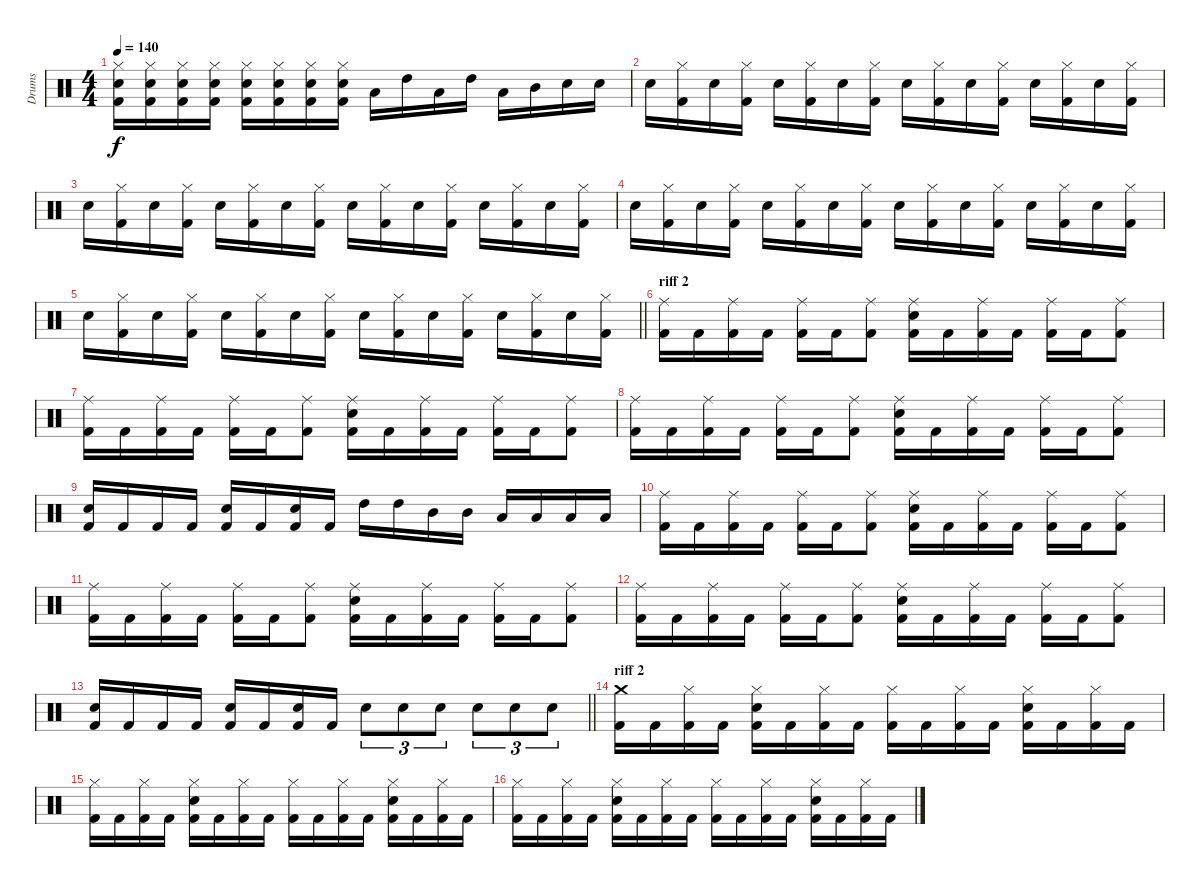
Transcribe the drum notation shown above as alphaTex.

\track ("Drums" "Drums") {instrument percussion}
\staff {score}
\articulation defaults
\ts (4 4)
\tempo 140
\clef neutral
\ks c
("Kick (hit) 2" "Snare (hit) 2" "Hi-Hat (closed)").16{dy f} ("Kick (hit) 2" "Snare (hit) 2" "Hi-Hat (closed)").16 ("Kick (hit) 2" "Snare (hit) 2" "Hi-Hat (closed)").16 ("Kick (hit) 2" "Snare (hit) 2" "Hi-Hat (closed)").16 ("Kick (hit) 2" "Snare (hit) 2" "Hi-Hat (closed)").16 ("Kick (hit) 2" "Snare (hit) 2" "Hi-Hat (closed)").16 ("Kick (hit) 2" "Snare (hit) 2" "Hi-Hat (closed)").16 ("Kick (hit) 2" "Snare (hit) 2" "Hi-Hat (closed)").16 "Low Floor Tom (hit)".16 "High Tom (hit)".16 "Low Floor Tom (hit)".16 "High Tom (hit)".16 "Low Floor Tom (hit)".16 "Mid Tom (hit)".16 "Snare (hit) 2".16 "Snare (hit) 2".16 |
"Snare (hit) 2".16 ("Kick (hit) 2" "Hi-Hat (closed)").16 "Snare (hit) 2".16 ("Kick (hit) 2" "Hi-Hat (closed)").16 "Snare (hit) 2".16 ("Kick (hit) 2" "Hi-Hat (closed)").16 "Snare (hit) 2".16 ("Kick (hit) 2" "Hi-Hat (closed)").16 "Snare (hit) 2".16 ("Kick (hit) 2" "Hi-Hat (closed)").16 "Snare (hit) 2".16 ("Kick (hit) 2" "Hi-Hat (closed)").16 "Snare (hit) 2".16 ("Kick (hit) 2" "Hi-Hat (closed)").16 "Snare (hit) 2".16 ("Kick (hit) 2" "Hi-Hat (closed)").16 |
"Snare (hit) 2".16 ("Kick (hit) 2" "Hi-Hat (closed)").16 "Snare (hit) 2".16 ("Kick (hit) 2" "Hi-Hat (closed)").16 "Snare (hit) 2".16 ("Kick (hit) 2" "Hi-Hat (closed)").16 "Snare (hit) 2".16 ("Kick (hit) 2" "Hi-Hat (closed)").16 "Snare (hit) 2".16 ("Kick (hit) 2" "Hi-Hat (closed)").16 "Snare (hit) 2".16 ("Kick (hit) 2" "Hi-Hat (closed)").16 "Snare (hit) 2".16 ("Kick (hit) 2" "Hi-Hat (closed)").16 "Snare (hit) 2".16 ("Kick (hit) 2" "Hi-Hat (closed)").16 |
"Snare (hit) 2".16 ("Kick (hit) 2" "Hi-Hat (closed)").16 "Snare (hit) 2".16 ("Kick (hit) 2" "Hi-Hat (closed)").16 "Snare (hit) 2".16 ("Kick (hit) 2" "Hi-Hat (closed)").16 "Snare (hit) 2".16 ("Kick (hit) 2" "Hi-Hat (closed)").16 "Snare (hit) 2".16 ("Kick (hit) 2" "Hi-Hat (closed)").16 "Snare (hit) 2".16 ("Kick (hit) 2" "Hi-Hat (closed)").16 "Snare (hit) 2".16 ("Kick (hit) 2" "Hi-Hat (closed)").16 "Snare (hit) 2".16 ("Kick (hit) 2" "Hi-Hat (closed)").16 |
\barLineRight lightlight "Snare (hit) 2".16
("Kick (hit) 2" "Hi-Hat (closed)").16 "Snare (hit) 2".16 ("Kick (hit) 2" "Hi-Hat (closed)").16 "Snare (hit) 2".16 ("Kick (hit) 2" "Hi-Hat (closed)").16 "Snare (hit) 2".16 ("Kick (hit) 2" "Hi-Hat (closed)").16 "Snare (hit) 2".16 ("Kick (hit) 2" "Hi-Hat (closed)").16 "Snare (hit) 2".16 ("Kick (hit) 2" "Hi-Hat (closed)").16 "Snare (hit) 2".16 ("Kick (hit) 2" "Hi-Hat (closed)").16 "Snare (hit) 2".16 ("Kick (hit) 2" "Hi-Hat (closed)").16 |
\section ("" "riff 2")
("Kick (hit) 2" "Ride (middle)").16 "Kick (hit) 2".16 ("Kick (hit) 2" "Ride (middle)").16 "Kick (hit) 2".16 ("Kick (hit) 2" "Ride (middle)").16 "Kick (hit) 2".16 ("Kick (hit) 2" "Ride (middle)").8 ("Kick (hit) 2" "Snare (hit) 2" "Ride (middle)").16 "Kick (hit) 2".16 ("Kick (hit) 2" "Ride (middle)").16 "Kick (hit) 2".16 ("Kick (hit) 2" "Ride (middle)").16 "Kick (hit) 2".16 ("Kick (hit) 2" "Ride (middle)").8 |
("Kick (hit) 2" "Ride (middle)").16 "Kick (hit) 2".16 ("Kick (hit) 2" "Ride (middle)").16 "Kick (hit) 2".16 ("Kick (hit) 2" "Ride (middle)").16 "Kick (hit) 2".16 ("Kick (hit) 2" "Ride (middle)").8 ("Kick (hit) 2" "Snare (hit) 2" "Ride (middle)").16 "Kick (hit) 2".16 ("Kick (hit) 2" "Ride (middle)").16 "Kick (hit) 2".16 ("Kick (hit) 2" "Ride (middle)").16 "Kick (hit) 2".16 ("Kick (hit) 2" "Ride (middle)").8 |
("Kick (hit) 2" "Ride (middle)").16 "Kick (hit) 2".16 ("Kick (hit) 2" "Ride (middle)").16 "Kick (hit) 2".16 ("Kick (hit) 2" "Ride (middle)").16 "Kick (hit) 2".16 ("Kick (hit) 2" "Ride (middle)").8 ("Kick (hit) 2" "Snare (hit) 2" "Ride (middle)").16 "Kick (hit) 2".16 ("Kick (hit) 2" "Ride (middle)").16 "Kick (hit) 2".16 ("Kick (hit) 2" "Ride (middle)").16 "Kick (hit) 2".16 ("Kick (hit) 2" "Ride (middle)").8 |
("Kick (hit) 2" "Snare (hit) 2").16 "Kick (hit) 2".16 "Kick (hit) 2".16 "Kick (hit) 2".16 ("Kick (hit) 2" "Snare (hit) 2").16 "Kick (hit) 2".16 ("Kick (hit) 2" "Snare (hit) 2").16 "Kick (hit) 2".16 "High Tom (hit)".16 "High Tom (hit)".16 "Mid Tom (hit)".16 "Mid Tom (hit)".16 "Low Tom (hit)".16 "Low Tom (hit)".16 "Low Floor Tom (hit)".16 "Low Floor Tom (hit)".16 |
("Kick (hit) 2" "Ride (middle)").16 "Kick (hit) 2".16 ("Kick (hit) 2" "Ride (middle)").16 "Kick (hit) 2".16 ("Kick (hit) 2" "Ride (middle)").16 "Kick (hit) 2".16 ("Kick (hit) 2" "Ride (middle)").8 ("Kick (hit) 2" "Snare (hit) 2" "Ride (middle)").16 "Kick (hit) 2".16 ("Kick (hit) 2" "Ride (middle)").16 "Kick (hit) 2".16 ("Kick (hit) 2" "Ride (middle)").16 "Kick (hit) 2".16 ("Kick (hit) 2" "Ride (middle)").8 |
("Kick (hit) 2" "Ride (middle)").16 "Kick (hit) 2".16 ("Kick (hit) 2" "Ride (middle)").16 "Kick (hit) 2".16 ("Kick (hit) 2" "Ride (middle)").16 "Kick (hit) 2".16 ("Kick (hit) 2" "Ride (middle)").8 ("Kick (hit) 2" "Snare (hit) 2" "Ride (middle)").16 "Kick (hit) 2".16 ("Kick (hit) 2" "Ride (middle)").16 "Kick (hit) 2".16 ("Kick (hit) 2" "Ride (middle)").16 "Kick (hit) 2".16 ("Kick (hit) 2" "Ride (middle)").8 |
("Kick (hit) 2" "Ride (middle)").16 "Kick (hit) 2".16 ("Kick (hit) 2" "Ride (middle)").16 "Kick (hit) 2".16 ("Kick (hit) 2" "Ride (middle)").16 "Kick (hit) 2".16 ("Kick (hit) 2" "Ride (middle)").8 ("Kick (hit) 2" "Snare (hit) 2" "Ride (middle)").16 "Kick (hit) 2".16 ("Kick (hit) 2" "Ride (middle)").16 "Kick (hit) 2".16 ("Kick (hit) 2" "Ride (middle)").16 "Kick (hit) 2".16 ("Kick (hit) 2" "Ride (middle)").8 |
\barLineRight lightlight
("Kick (hit) 2" "Snare (hit) 2").16 "Kick (hit) 2".16 "Kick (hit) 2".16 "Kick (hit) 2".16 ("Kick (hit) 2" "Snare (hit) 2").16 "Kick (hit) 2".16 ("Kick (hit) 2" "Snare (hit) 2").16 "Kick (hit) 2".16 "Snare (hit) 2".8{tu (3 2)} "Snare (hit) 2".8{tu (3 2)} "Snare (hit) 2".8{tu (3 2)} "Snare (hit) 2".8{tu (3 2)} "Snare (hit) 2".8{tu (3 2)} "Snare (hit) 2".8{tu (3 2)} |
\section ("" "riff 2")
("Kick (hit) 2" "Crash medium (hit)").16 "Kick (hit) 2".16 ("Kick (hit) 2" "Hi-Hat (closed)").16 "Kick (hit) 2".16 ("Kick (hit) 2" "Snare (hit) 2" "Hi-Hat (closed)").16 "Kick (hit) 2".16 ("Kick (hit) 2" "Hi-Hat (closed)").16 "Kick (hit) 2".16 ("Kick (hit) 2" "Hi-Hat (closed)").16 "Kick (hit) 2".16 ("Kick (hit) 2" "Hi-Hat (closed)").16 "Kick (hit) 2".16 ("Kick (hit) 2" "Snare (hit) 2" "Hi-Hat (closed)").16 "Kick (hit) 2".16 ("Kick (hit) 2" "Hi-Hat (closed)").16 "Kick (hit) 2".16 |
("Kick (hit) 2" "Hi-Hat (closed)").16 "Kick (hit) 2".16 ("Kick (hit) 2" "Hi-Hat (closed)").16 "Kick (hit) 2".16 ("Kick (hit) 2" "Snare (hit) 2" "Hi-Hat (closed)").16 "Kick (hit) 2".16 ("Kick (hit) 2" "Hi-Hat (closed)").16 "Kick (hit) 2".16 ("Kick (hit) 2" "Hi-Hat (closed)").16 "Kick (hit) 2".16 ("Kick (hit) 2" "Hi-Hat (closed)").16 "Kick (hit) 2".16 ("Kick (hit) 2" "Snare (hit) 2" "Hi-Hat (closed)").16 "Kick (hit) 2".16 ("Kick (hit) 2" "Hi-Hat (closed)").16 "Kick (hit) 2".16 |
("Kick (hit) 2" "Hi-Hat (closed)").16 "Kick (hit) 2".16 ("Kick (hit) 2" "Hi-Hat (closed)").16 "Kick (hit) 2".16 ("Kick (hit) 2" "Snare (hit) 2" "Hi-Hat (closed)").16 "Kick (hit) 2".16 ("Kick (hit) 2" "Hi-Hat (closed)").16 "Kick (hit) 2".16 ("Kick (hit) 2" "Hi-Hat (closed)").16 "Kick (hit) 2".16 ("Kick (hit) 2" "Hi-Hat (closed)").16 "Kick (hit) 2".16 ("Kick (hit) 2" "Snare (hit) 2" "Hi-Hat (closed)").16 "Kick (hit) 2".16 ("Kick (hit) 2" "Hi-Hat (closed)").16 "Kick (hit) 2".16
